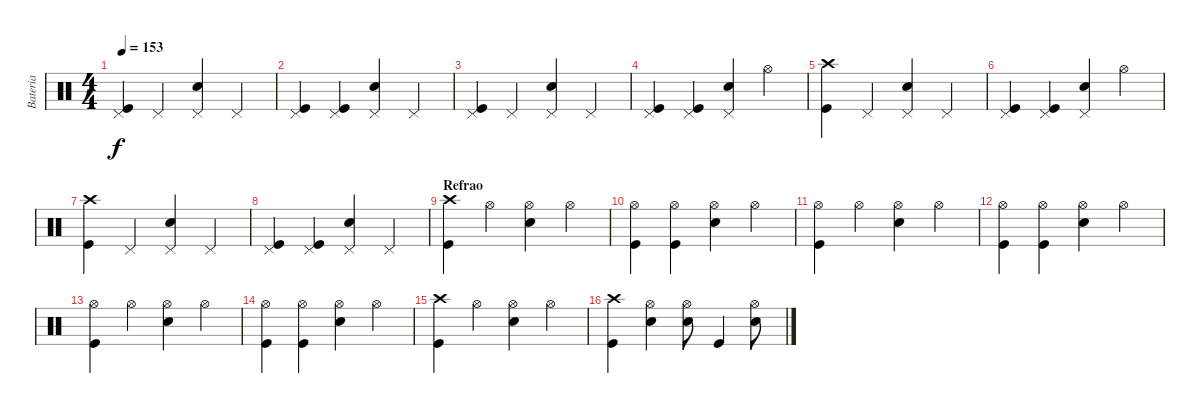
\track ("Bateria" "Bateria") {instrument percussion}
\staff {score}
\articulation defaults
\ts (4 4)
\tempo 153
\clef neutral
\ks c
("Pedal Hi-Hat (hit)" "Kick (hit)").4{dy f} "Pedal Hi-Hat (hit)".4 ("Pedal Hi-Hat (hit)" "Electric Snare (hit)").4 "Pedal Hi-Hat (hit)".4 |
("Pedal Hi-Hat (hit)" "Kick (hit)").4 ("Pedal Hi-Hat (hit)" "Kick (hit)").4 ("Pedal Hi-Hat (hit)" "Electric Snare (hit)").4 "Pedal Hi-Hat (hit)".4 |
("Pedal Hi-Hat (hit)" "Kick (hit)").4 "Pedal Hi-Hat (hit)".4 ("Pedal Hi-Hat (hit)" "Electric Snare (hit)").4 "Pedal Hi-Hat (hit)".4 |
("Pedal Hi-Hat (hit)" "Kick (hit)").4 ("Pedal Hi-Hat (hit)" "Kick (hit)").4 ("Pedal Hi-Hat (hit)" "Electric Snare (hit)").4 "Hi-Hat (open)".4 |
("Crash high (hit)" "Kick (hit)").4 "Pedal Hi-Hat (hit)".4 ("Pedal Hi-Hat (hit)" "Electric Snare (hit)").4 "Pedal Hi-Hat (hit)".4 |
("Pedal Hi-Hat (hit)" "Kick (hit)").4 ("Pedal Hi-Hat (hit)" "Kick (hit)").4 ("Pedal Hi-Hat (hit)" "Electric Snare (hit)").4 "Hi-Hat (open)".4 |
("Crash high (hit)" "Kick (hit)").4 "Pedal Hi-Hat (hit)".4 ("Pedal Hi-Hat (hit)" "Electric Snare (hit)").4 "Pedal Hi-Hat (hit)".4 |
("Pedal Hi-Hat (hit)" "Kick (hit)").4 ("Pedal Hi-Hat (hit)" "Kick (hit)").4 ("Pedal Hi-Hat (hit)" "Electric Snare (hit)").4 "Pedal Hi-Hat (hit)".4 |
\section ("" "Refrao")
("Crash high (hit)" "Kick (hit)").4 "Hi-Hat (open)".4 ("Hi-Hat (open)" "Electric Snare (hit)").4 "Hi-Hat (open)".4 |
("Hi-Hat (open)" "Kick (hit)").4 ("Hi-Hat (open)" "Kick (hit)").4 ("Hi-Hat (open)" "Electric Snare (hit)").4 "Hi-Hat (open)".4 |
("Hi-Hat (open)" "Kick (hit)").4 "Hi-Hat (open)".4 ("Hi-Hat (open)" "Electric Snare (hit)").4 "Hi-Hat (open)".4 |
("Hi-Hat (open)" "Kick (hit)").4 ("Hi-Hat (open)" "Kick (hit)").4 ("Hi-Hat (open)" "Electric Snare (hit)").4 "Hi-Hat (open)".4 |
("Hi-Hat (open)" "Kick (hit)").4 "Hi-Hat (open)".4 ("Hi-Hat (open)" "Electric Snare (hit)").4 "Hi-Hat (open)".4 |
("Hi-Hat (open)" "Kick (hit)").4 ("Hi-Hat (open)" "Kick (hit)").4 ("Hi-Hat (open)" "Electric Snare (hit)").4 "Hi-Hat (open)".4 |
("Crash high (hit)" "Kick (hit)").4 "Hi-Hat (open)".4 ("Hi-Hat (open)" "Electric Snare (hit)").4 "Hi-Hat (open)".4 |
("Crash high (hit)" "Kick (hit)").4 ("Hi-Hat (open)" "Electric Snare (hit)").4 ("Hi-Hat (open)" "Electric Snare (hit)").8 "Kick (hit)".4 ("Hi-Hat (open)" "Electric Snare (hit)").8
